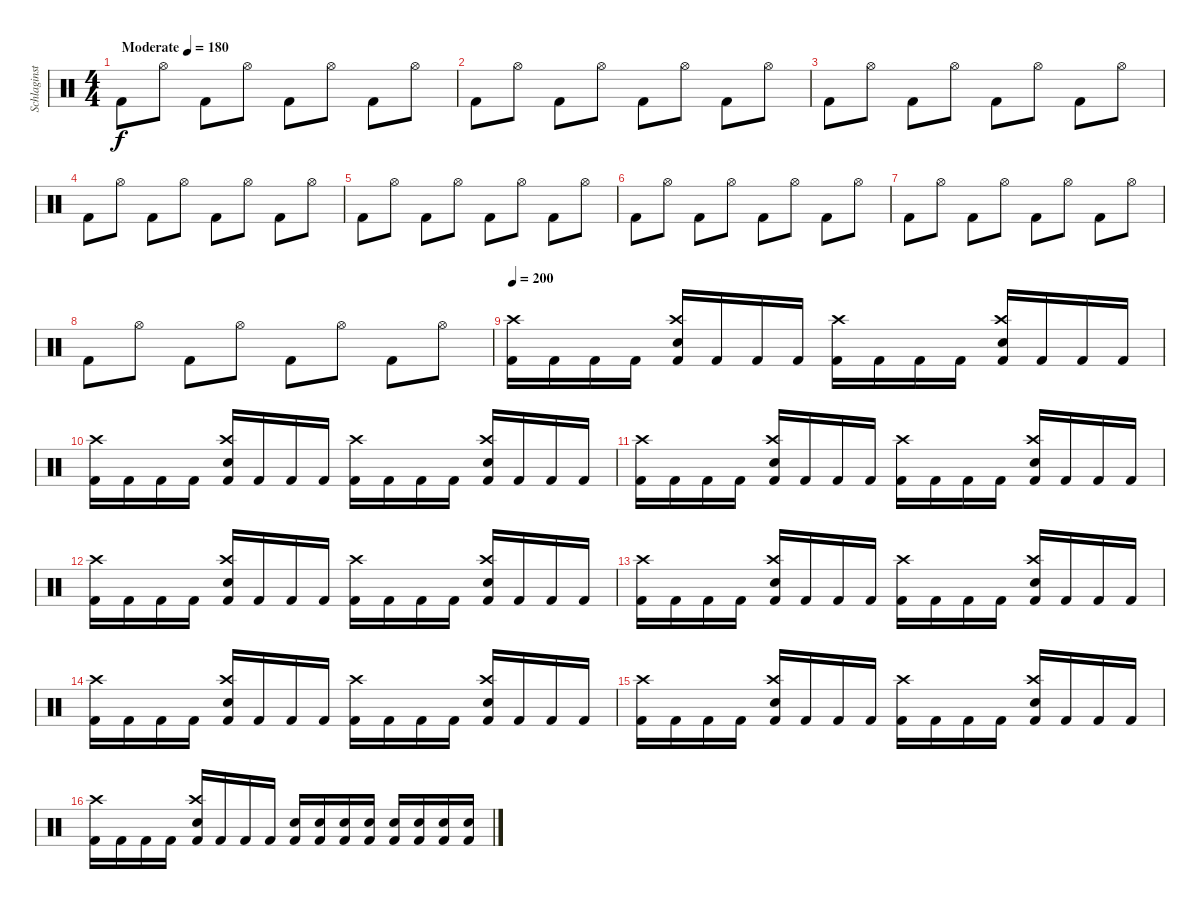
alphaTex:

\track ("Schlaginstrumente - Auswahl" "Schlaginst") {instrument percussion}
\staff {score}
\articulation defaults
\ts (4 4)
\tempo (180 "Moderate")
\clef neutral
\ks c "Kick (hit) 2".8{dy f} "Hi-Hat (open)".8 "Kick (hit) 2".8 "Hi-Hat (open)".8 "Kick (hit) 2".8 "Hi-Hat (open)".8 "Kick (hit) 2".8 "Hi-Hat (open)".8
|
"Kick (hit) 2".8 "Hi-Hat (open)".8 "Kick (hit) 2".8 "Hi-Hat (open)".8 "Kick (hit) 2".8 "Hi-Hat (open)".8 "Kick (hit) 2".8 "Hi-Hat (open)".8 |
"Kick (hit) 2".8 "Hi-Hat (open)".8 "Kick (hit) 2".8 "Hi-Hat (open)".8 "Kick (hit) 2".8 "Hi-Hat (open)".8 "Kick (hit) 2".8 "Hi-Hat (open)".8 |
"Kick (hit) 2".8 "Hi-Hat (open)".8 "Kick (hit) 2".8 "Hi-Hat (open)".8 "Kick (hit) 2".8 "Hi-Hat (open)".8 "Kick (hit) 2".8 "Hi-Hat (open)".8 |
"Kick (hit) 2".8 "Hi-Hat (open)".8 "Kick (hit) 2".8 "Hi-Hat (open)".8 "Kick (hit) 2".8 "Hi-Hat (open)".8 "Kick (hit) 2".8 "Hi-Hat (open)".8 |
"Kick (hit) 2".8 "Hi-Hat (open)".8 "Kick (hit) 2".8 "Hi-Hat (open)".8 "Kick (hit) 2".8 "Hi-Hat (open)".8 "Kick (hit) 2".8 "Hi-Hat (open)".8 |
"Kick (hit) 2".8 "Hi-Hat (open)".8 "Kick (hit) 2".8 "Hi-Hat (open)".8 "Kick (hit) 2".8 "Hi-Hat (open)".8 "Kick (hit) 2".8 "Hi-Hat (open)".8 |
"Kick (hit) 2".8 "Hi-Hat (open)".8 "Kick (hit) 2".8 "Hi-Hat (open)".8 "Kick (hit) 2".8 "Hi-Hat (open)".8 "Kick (hit) 2".8 "Hi-Hat (open)".8 |
\tempo 200
("Crash high (hit)" "Kick (hit) 2").16 "Kick (hit) 2".16 "Kick (hit) 2".16 "Kick (hit) 2".16 ("Crash high (hit)" "Snare (hit) 2" "Kick (hit) 2").16 "Kick (hit) 2".16 "Kick (hit) 2".16 "Kick (hit) 2".16 ("Crash high (hit)" "Kick (hit) 2").16 "Kick (hit) 2".16 "Kick (hit) 2".16 "Kick (hit) 2".16 ("Crash high (hit)" "Snare (hit) 2" "Kick (hit) 2").16 "Kick (hit) 2".16 "Kick (hit) 2".16 "Kick (hit) 2".16 |
("Crash high (hit)" "Kick (hit) 2").16 "Kick (hit) 2".16 "Kick (hit) 2".16 "Kick (hit) 2".16 ("Crash high (hit)" "Snare (hit) 2" "Kick (hit) 2").16 "Kick (hit) 2".16 "Kick (hit) 2".16 "Kick (hit) 2".16 ("Crash high (hit)" "Kick (hit) 2").16 "Kick (hit) 2".16 "Kick (hit) 2".16 "Kick (hit) 2".16 ("Crash high (hit)" "Snare (hit) 2" "Kick (hit) 2").16 "Kick (hit) 2".16 "Kick (hit) 2".16 "Kick (hit) 2".16 |
("Crash high (hit)" "Kick (hit) 2").16 "Kick (hit) 2".16 "Kick (hit) 2".16 "Kick (hit) 2".16 ("Crash high (hit)" "Snare (hit) 2" "Kick (hit) 2").16 "Kick (hit) 2".16 "Kick (hit) 2".16 "Kick (hit) 2".16 ("Crash high (hit)" "Kick (hit) 2").16 "Kick (hit) 2".16 "Kick (hit) 2".16 "Kick (hit) 2".16 ("Crash high (hit)" "Snare (hit) 2" "Kick (hit) 2").16 "Kick (hit) 2".16 "Kick (hit) 2".16 "Kick (hit) 2".16 |
("Crash high (hit)" "Kick (hit) 2").16 "Kick (hit) 2".16 "Kick (hit) 2".16 "Kick (hit) 2".16 ("Crash high (hit)" "Snare (hit) 2" "Kick (hit) 2").16 "Kick (hit) 2".16 "Kick (hit) 2".16 "Kick (hit) 2".16 ("Crash high (hit)" "Kick (hit) 2").16 "Kick (hit) 2".16 "Kick (hit) 2".16 "Kick (hit) 2".16 ("Crash high (hit)" "Snare (hit) 2" "Kick (hit) 2").16 "Kick (hit) 2".16 "Kick (hit) 2".16 "Kick (hit) 2".16 |
("Crash high (hit)" "Kick (hit) 2").16 "Kick (hit) 2".16 "Kick (hit) 2".16 "Kick (hit) 2".16 ("Crash high (hit)" "Snare (hit) 2" "Kick (hit) 2").16 "Kick (hit) 2".16 "Kick (hit) 2".16 "Kick (hit) 2".16 ("Crash high (hit)" "Kick (hit) 2").16 "Kick (hit) 2".16 "Kick (hit) 2".16 "Kick (hit) 2".16 ("Crash high (hit)" "Snare (hit) 2" "Kick (hit) 2").16 "Kick (hit) 2".16 "Kick (hit) 2".16 "Kick (hit) 2".16 |
("Crash high (hit)" "Kick (hit) 2").16 "Kick (hit) 2".16 "Kick (hit) 2".16 "Kick (hit) 2".16 ("Crash high (hit)" "Snare (hit) 2" "Kick (hit) 2").16 "Kick (hit) 2".16 "Kick (hit) 2".16 "Kick (hit) 2".16 ("Crash high (hit)" "Kick (hit) 2").16 "Kick (hit) 2".16 "Kick (hit) 2".16 "Kick (hit) 2".16 ("Crash high (hit)" "Snare (hit) 2" "Kick (hit) 2").16 "Kick (hit) 2".16 "Kick (hit) 2".16 "Kick (hit) 2".16 |
("Crash high (hit)" "Kick (hit) 2").16 "Kick (hit) 2".16 "Kick (hit) 2".16 "Kick (hit) 2".16 ("Crash high (hit)" "Snare (hit) 2" "Kick (hit) 2").16 "Kick (hit) 2".16 "Kick (hit) 2".16 "Kick (hit) 2".16 ("Crash high (hit)" "Kick (hit) 2").16 "Kick (hit) 2".16 "Kick (hit) 2".16 "Kick (hit) 2".16 ("Crash high (hit)" "Snare (hit) 2" "Kick (hit) 2").16 "Kick (hit) 2".16 "Kick (hit) 2".16 "Kick (hit) 2".16 |
("Crash high (hit)" "Kick (hit) 2").16 "Kick (hit) 2".16 "Kick (hit) 2".16 "Kick (hit) 2".16 ("Crash high (hit)" "Snare (hit) 2" "Kick (hit) 2").16 "Kick (hit) 2".16 "Kick (hit) 2".16 "Kick (hit) 2".16 ("Snare (hit) 2" "Kick (hit) 2").16 ("Snare (hit) 2" "Kick (hit) 2").16 ("Snare (hit) 2" "Kick (hit) 2").16 ("Snare (hit) 2" "Kick (hit) 2").16 ("Snare (hit) 2" "Kick (hit) 2").16 ("Snare (hit) 2" "Kick (hit) 2").16 ("Snare (hit) 2" "Kick (hit) 2").16 ("Snare (hit) 2" "Kick (hit) 2").16
